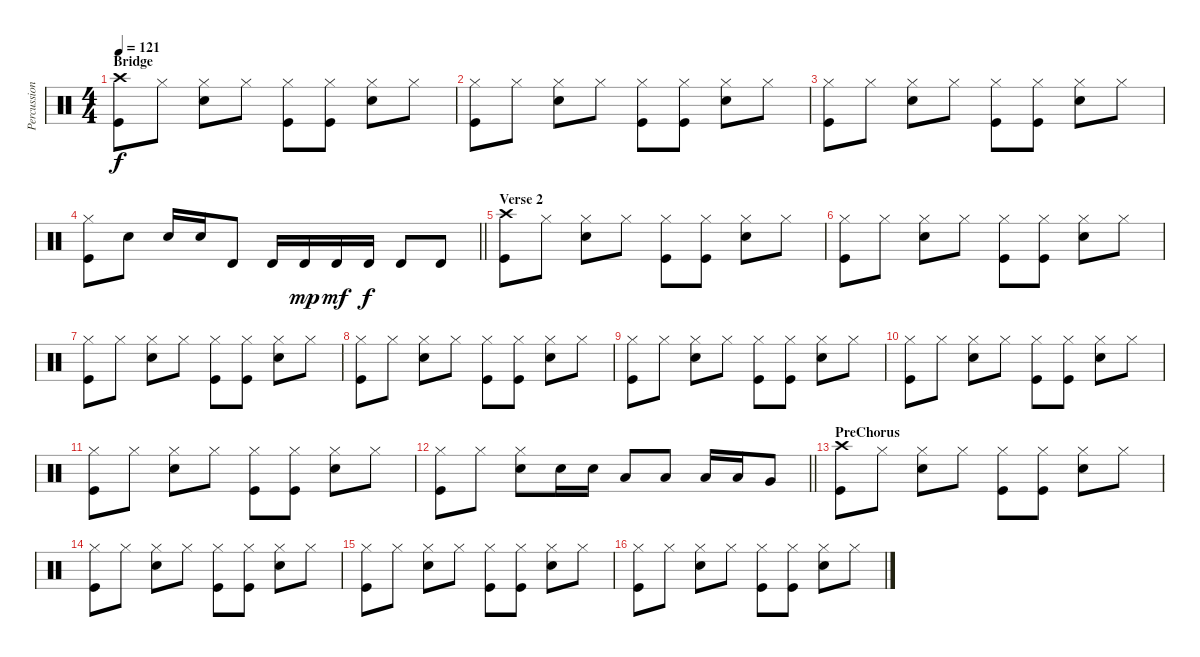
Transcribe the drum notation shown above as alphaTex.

\track ("Percussion" "Percussion") {instrument percussion}
\staff {score}
\articulation defaults
\ts (4 4)
\section ("" "Bridge")
\tempo 121
\clef neutral
\ks c
("Crash high (hit)" "Kick (hit)").8{dy f} "Hi-Hat (closed)".8 ("Hi-Hat (closed)" "Snare (hit) 2").8 "Hi-Hat (closed)".8 ("Hi-Hat (closed)" "Kick (hit)").8 ("Hi-Hat (closed)" "Kick (hit)").8 ("Hi-Hat (closed)" "Snare (hit) 2").8 "Hi-Hat (closed)".8 |
("Hi-Hat (closed)" "Kick (hit)").8 "Hi-Hat (closed)".8 ("Hi-Hat (closed)" "Snare (hit) 2").8 "Hi-Hat (closed)".8 ("Hi-Hat (closed)" "Kick (hit)").8 ("Hi-Hat (closed)" "Kick (hit)").8 ("Hi-Hat (closed)" "Snare (hit) 2").8 "Hi-Hat (closed)".8 |
("Hi-Hat (closed)" "Kick (hit)").8 "Hi-Hat (closed)".8 ("Hi-Hat (closed)" "Snare (hit) 2").8 "Hi-Hat (closed)".8 ("Hi-Hat (closed)" "Kick (hit)").8 ("Hi-Hat (closed)" "Kick (hit)").8 ("Hi-Hat (closed)" "Snare (hit) 2").8 "Hi-Hat (closed)".8 |
\barLineRight lightlight
("Hi-Hat (closed)" "Kick (hit)").8 "Snare (hit) 2".8 "Snare (hit) 2".16 "Snare (hit) 2".16 "Timbale high (hit)".8 "Timbale high (hit)".16 "Timbale high (hit)".16{dy mp} "Timbale high (hit)".16{dy mf} "Timbale high (hit)".16{dy f} "Timbale high (hit)".8 "Timbale high (hit)".8 |
\section ("" "Verse 2")
("Crash high (hit)" "Kick (hit)").8 "Hi-Hat (closed)".8 ("Hi-Hat (closed)" "Snare (hit) 2").8 "Hi-Hat (closed)".8 ("Hi-Hat (closed)" "Kick (hit)").8 ("Hi-Hat (closed)" "Kick (hit)").8 ("Hi-Hat (closed)" "Snare (hit) 2").8 "Hi-Hat (closed)".8 |
("Hi-Hat (closed)" "Kick (hit)").8 "Hi-Hat (closed)".8 ("Hi-Hat (closed)" "Snare (hit) 2").8 "Hi-Hat (closed)".8 ("Hi-Hat (closed)" "Kick (hit)").8 ("Hi-Hat (closed)" "Kick (hit)").8 ("Hi-Hat (closed)" "Snare (hit) 2").8 "Hi-Hat (closed)".8 |
("Hi-Hat (closed)" "Kick (hit)").8 "Hi-Hat (closed)".8 ("Hi-Hat (closed)" "Snare (hit) 2").8 "Hi-Hat (closed)".8 ("Hi-Hat (closed)" "Kick (hit)").8 ("Hi-Hat (closed)" "Kick (hit)").8 ("Hi-Hat (closed)" "Snare (hit) 2").8 "Hi-Hat (closed)".8 |
("Hi-Hat (closed)" "Kick (hit)").8 "Hi-Hat (closed)".8 ("Hi-Hat (closed)" "Snare (hit) 2").8 "Hi-Hat (closed)".8 ("Hi-Hat (closed)" "Kick (hit)").8 ("Hi-Hat (closed)" "Kick (hit)").8 ("Hi-Hat (closed)" "Snare (hit) 2").8 "Hi-Hat (closed)".8 |
("Hi-Hat (closed)" "Kick (hit)").8 "Hi-Hat (closed)".8 ("Hi-Hat (closed)" "Snare (hit) 2").8 "Hi-Hat (closed)".8 ("Hi-Hat (closed)" "Kick (hit)").8 ("Hi-Hat (closed)" "Kick (hit)").8 ("Hi-Hat (closed)" "Snare (hit) 2").8 "Hi-Hat (closed)".8 |
("Hi-Hat (closed)" "Kick (hit)").8 "Hi-Hat (closed)".8 ("Hi-Hat (closed)" "Snare (hit) 2").8 "Hi-Hat (closed)".8 ("Hi-Hat (closed)" "Kick (hit)").8 ("Hi-Hat (closed)" "Kick (hit)").8 ("Hi-Hat (closed)" "Snare (hit) 2").8 "Hi-Hat (closed)".8 |
("Hi-Hat (closed)" "Kick (hit)").8 "Hi-Hat (closed)".8 ("Hi-Hat (closed)" "Snare (hit) 2").8 "Hi-Hat (closed)".8 ("Hi-Hat (closed)" "Kick (hit)").8 ("Hi-Hat (closed)" "Kick (hit)").8 ("Hi-Hat (closed)" "Snare (hit) 2").8 "Hi-Hat (closed)".8 |
\barLineRight lightlight
("Hi-Hat (closed)" "Kick (hit)").8 "Hi-Hat (closed)".8 ("Hi-Hat (closed)" "Snare (hit) 2").8 "Snare (hit) 2".16 "Snare (hit) 2".16 "Low Tom (hit)".8 "Low Tom (hit)".8 "Low Tom (hit)".16 "Low Tom (hit)".16 "Very Low Tom (hit)".8 |
\section ("" "PreChorus")
("Crash high (hit)" "Kick (hit)").8 "Hi-Hat (closed)".8 ("Hi-Hat (closed)" "Snare (hit) 2").8 "Hi-Hat (closed)".8 ("Hi-Hat (closed)" "Kick (hit)").8 ("Hi-Hat (closed)" "Kick (hit)").8 ("Hi-Hat (closed)" "Snare (hit) 2").8 "Hi-Hat (closed)".8 |
("Hi-Hat (closed)" "Kick (hit)").8 "Hi-Hat (closed)".8 ("Hi-Hat (closed)" "Snare (hit) 2").8 "Hi-Hat (closed)".8 ("Hi-Hat (closed)" "Kick (hit)").8 ("Hi-Hat (closed)" "Kick (hit)").8 ("Hi-Hat (closed)" "Snare (hit) 2").8 "Hi-Hat (closed)".8 |
("Hi-Hat (closed)" "Kick (hit)").8 "Hi-Hat (closed)".8 ("Hi-Hat (closed)" "Snare (hit) 2").8 "Hi-Hat (closed)".8 ("Hi-Hat (closed)" "Kick (hit)").8 ("Hi-Hat (closed)" "Kick (hit)").8 ("Hi-Hat (closed)" "Snare (hit) 2").8 "Hi-Hat (closed)".8 |
("Hi-Hat (closed)" "Kick (hit)").8 "Hi-Hat (closed)".8 ("Hi-Hat (closed)" "Snare (hit) 2").8 "Hi-Hat (closed)".8 ("Hi-Hat (closed)" "Kick (hit)").8 ("Hi-Hat (closed)" "Kick (hit)").8 ("Hi-Hat (closed)" "Snare (hit) 2").8 "Hi-Hat (closed)".8
